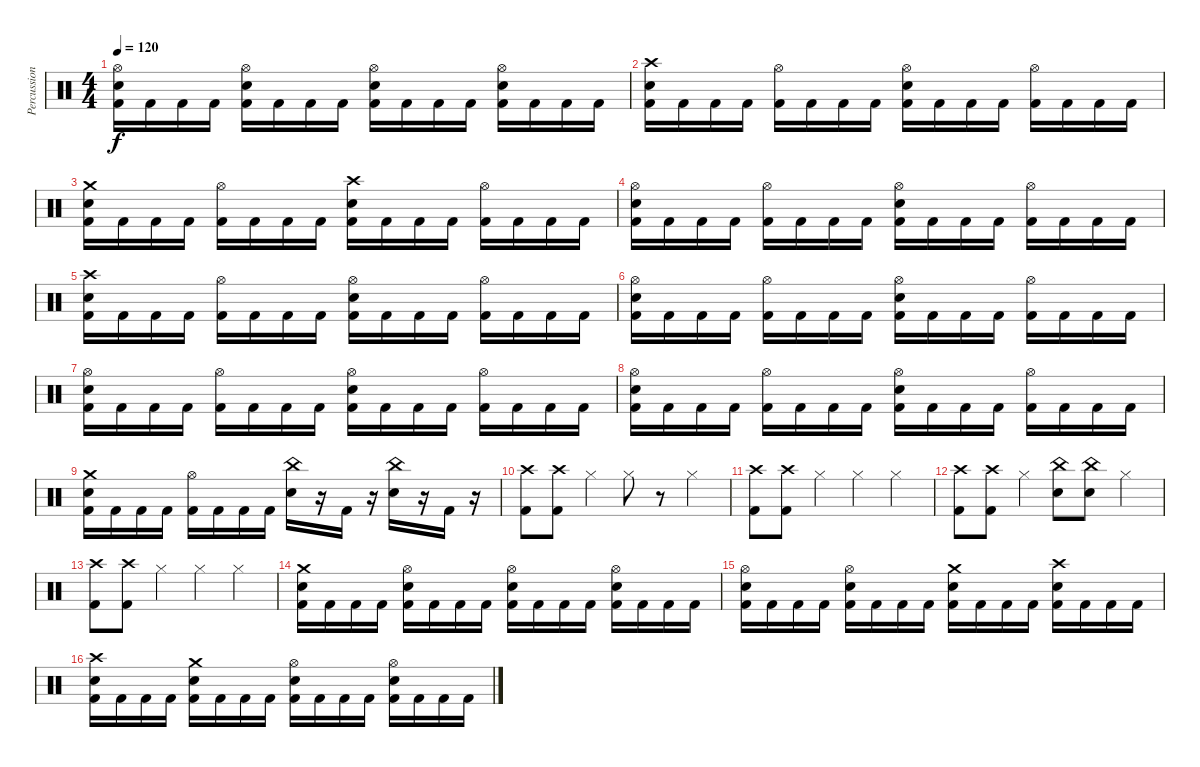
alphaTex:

\track ("Percussion" "Percussion") {instrument percussion}
\staff {score}
\articulation defaults
\ts (4 4)
\tempo 120
\clef neutral
\ks c
("Hi-Hat (open)" "Snare (hit) 2" "Kick (hit) 2").16{dy f} "Kick (hit) 2".16 "Kick (hit) 2".16 "Kick (hit) 2".16 ("Hi-Hat (open)" "Snare (hit) 2" "Kick (hit) 2").16 "Kick (hit) 2".16 "Kick (hit) 2".16 "Kick (hit) 2".16 ("Hi-Hat (open)" "Snare (hit) 2" "Kick (hit) 2").16 "Kick (hit) 2".16 "Kick (hit) 2".16 "Kick (hit) 2".16 ("Hi-Hat (open)" "Snare (hit) 2" "Kick (hit) 2").16 "Kick (hit) 2".16 "Kick (hit) 2".16 "Kick (hit) 2".16 |
("Crash high (hit)" "Snare (hit) 2" "Kick (hit) 2").16 "Kick (hit) 2".16 "Kick (hit) 2".16 "Kick (hit) 2".16 ("Hi-Hat (open)" "Kick (hit) 2").16 "Kick (hit) 2".16 "Kick (hit) 2".16 "Kick (hit) 2".16 ("Hi-Hat (open)" "Snare (hit) 2" "Kick (hit) 2").16 "Kick (hit) 2".16 "Kick (hit) 2".16 "Kick (hit) 2".16 ("Hi-Hat (open)" "Kick (hit) 2").16 "Kick (hit) 2".16 "Kick (hit) 2".16 "Kick (hit) 2".16 |
("Crash medium (hit)" "Snare (hit) 2" "Kick (hit) 2").16 "Kick (hit) 2".16 "Kick (hit) 2".16 "Kick (hit) 2".16 ("Hi-Hat (open)" "Kick (hit) 2").16 "Kick (hit) 2".16 "Kick (hit) 2".16 "Kick (hit) 2".16 ("Crash high (hit)" "Snare (hit) 2" "Kick (hit) 2").16 "Kick (hit) 2".16 "Kick (hit) 2".16 "Kick (hit) 2".16 ("Hi-Hat (open)" "Kick (hit) 2").16 "Kick (hit) 2".16 "Kick (hit) 2".16 "Kick (hit) 2".16 |
("Hi-Hat (open)" "Snare (hit) 2" "Kick (hit) 2").16 "Kick (hit) 2".16 "Kick (hit) 2".16 "Kick (hit) 2".16 ("Hi-Hat (open)" "Kick (hit) 2").16 "Kick (hit) 2".16 "Kick (hit) 2".16 "Kick (hit) 2".16 ("Hi-Hat (open)" "Snare (hit) 2" "Kick (hit) 2").16 "Kick (hit) 2".16 "Kick (hit) 2".16 "Kick (hit) 2".16 ("Hi-Hat (open)" "Kick (hit) 2").16 "Kick (hit) 2".16 "Kick (hit) 2".16 "Kick (hit) 2".16 |
("Crash high (hit)" "Snare (hit) 2" "Kick (hit) 2").16 "Kick (hit) 2".16 "Kick (hit) 2".16 "Kick (hit) 2".16 ("Hi-Hat (open)" "Kick (hit) 2").16 "Kick (hit) 2".16 "Kick (hit) 2".16 "Kick (hit) 2".16 ("Hi-Hat (open)" "Snare (hit) 2" "Kick (hit) 2").16 "Kick (hit) 2".16 "Kick (hit) 2".16 "Kick (hit) 2".16 ("Hi-Hat (open)" "Kick (hit) 2").16 "Kick (hit) 2".16 "Kick (hit) 2".16 "Kick (hit) 2".16 |
("Hi-Hat (open)" "Snare (hit) 2" "Kick (hit) 2").16 "Kick (hit) 2".16 "Kick (hit) 2".16 "Kick (hit) 2".16 ("Hi-Hat (open)" "Kick (hit) 2").16 "Kick (hit) 2".16 "Kick (hit) 2".16 "Kick (hit) 2".16 ("Hi-Hat (open)" "Snare (hit) 2" "Kick (hit) 2").16 "Kick (hit) 2".16 "Kick (hit) 2".16 "Kick (hit) 2".16 ("Hi-Hat (open)" "Kick (hit) 2").16 "Kick (hit) 2".16 "Kick (hit) 2".16 "Kick (hit) 2".16 |
("Hi-Hat (open)" "Snare (hit) 2" "Kick (hit) 2").16 "Kick (hit) 2".16 "Kick (hit) 2".16 "Kick (hit) 2".16 ("Hi-Hat (open)" "Kick (hit) 2").16 "Kick (hit) 2".16 "Kick (hit) 2".16 "Kick (hit) 2".16 ("Hi-Hat (open)" "Snare (hit) 2" "Kick (hit) 2").16 "Kick (hit) 2".16 "Kick (hit) 2".16 "Kick (hit) 2".16 ("Hi-Hat (open)" "Kick (hit) 2").16 "Kick (hit) 2".16 "Kick (hit) 2".16 "Kick (hit) 2".16 |
("Hi-Hat (open)" "Snare (hit) 2" "Kick (hit) 2").16 "Kick (hit) 2".16 "Kick (hit) 2".16 "Kick (hit) 2".16 ("Hi-Hat (open)" "Kick (hit) 2").16 "Kick (hit) 2".16 "Kick (hit) 2".16 "Kick (hit) 2".16 ("Hi-Hat (open)" "Snare (hit) 2" "Kick (hit) 2").16 "Kick (hit) 2".16 "Kick (hit) 2".16 "Kick (hit) 2".16 ("Hi-Hat (open)" "Kick (hit) 2").16 "Kick (hit) 2".16 "Kick (hit) 2".16 "Kick (hit) 2".16 |
("Crash medium (hit)" "Snare (hit) 2" "Kick (hit) 2").16 "Kick (hit) 2".16 "Kick (hit) 2".16 "Kick (hit) 2".16 ("Hi-Hat (open)" "Kick (hit) 2").16 "Kick (hit) 2".16 "Kick (hit) 2".16 "Kick (hit) 2".16 ("China (hit)" "Snare (hit) 2").16 r.16 "Kick (hit) 2".16 r.16 ("China (hit)" "Snare (hit) 2").16 r.16 "Kick (hit) 2".16 r.16 |
("Crash high (hit)" "Kick (hit) 2").8 ("Crash high (hit)" "Kick (hit) 2").8 "Hi-Hat (closed)".4 "Hi-Hat (closed)".8 r.8 "Hi-Hat (closed)".4 |
("Crash high (hit)" "Kick (hit) 2").8 ("Crash high (hit)" "Kick (hit) 2").8 "Hi-Hat (closed)".4 "Hi-Hat (closed)".4 "Hi-Hat (closed)".4 |
("Crash high (hit)" "Kick (hit) 2").8 ("Crash high (hit)" "Kick (hit) 2").8 "Hi-Hat (closed)".4 ("China (hit)" "Snare (hit) 2").8 ("China (hit)" "Snare (hit) 2").8 "Hi-Hat (closed)".4 |
("Crash high (hit)" "Kick (hit) 2").8 ("Crash high (hit)" "Kick (hit) 2").8 "Hi-Hat (closed)".4 "Hi-Hat (closed)".4 "Hi-Hat (closed)".4 |
("Crash medium (hit)" "Snare (hit) 2" "Kick (hit) 2").16 "Kick (hit) 2".16 "Kick (hit) 2".16 "Kick (hit) 2".16 ("Hi-Hat (open)" "Snare (hit) 2" "Kick (hit) 2").16 "Kick (hit) 2".16 "Kick (hit) 2".16 "Kick (hit) 2".16 ("Hi-Hat (open)" "Snare (hit) 2" "Kick (hit) 2").16 "Kick (hit) 2".16 "Kick (hit) 2".16 "Kick (hit) 2".16 ("Hi-Hat (open)" "Snare (hit) 2" "Kick (hit) 2").16 "Kick (hit) 2".16 "Kick (hit) 2".16 "Kick (hit) 2".16 |
("Hi-Hat (open)" "Snare (hit) 2" "Kick (hit) 2").16 "Kick (hit) 2".16 "Kick (hit) 2".16 "Kick (hit) 2".16 ("Hi-Hat (open)" "Snare (hit) 2" "Kick (hit) 2").16 "Kick (hit) 2".16 "Kick (hit) 2".16 "Kick (hit) 2".16 ("Crash medium (hit)" "Snare (hit) 2" "Kick (hit) 2").16 "Kick (hit) 2".16 "Kick (hit) 2".16 "Kick (hit) 2".16 ("Crash high (hit)" "Snare (hit) 2" "Kick (hit) 2").16 "Kick (hit) 2".16 "Kick (hit) 2".16 "Kick (hit) 2".16 |
("Crash high (hit)" "Snare (hit) 2" "Kick (hit) 2").16 "Kick (hit) 2".16 "Kick (hit) 2".16 "Kick (hit) 2".16 ("Crash medium (hit)" "Snare (hit) 2" "Kick (hit) 2").16 "Kick (hit) 2".16 "Kick (hit) 2".16 "Kick (hit) 2".16 ("Hi-Hat (open)" "Snare (hit) 2" "Kick (hit) 2").16 "Kick (hit) 2".16 "Kick (hit) 2".16 "Kick (hit) 2".16 ("Hi-Hat (open)" "Snare (hit) 2" "Kick (hit) 2").16 "Kick (hit) 2".16 "Kick (hit) 2".16 "Kick (hit) 2".16
